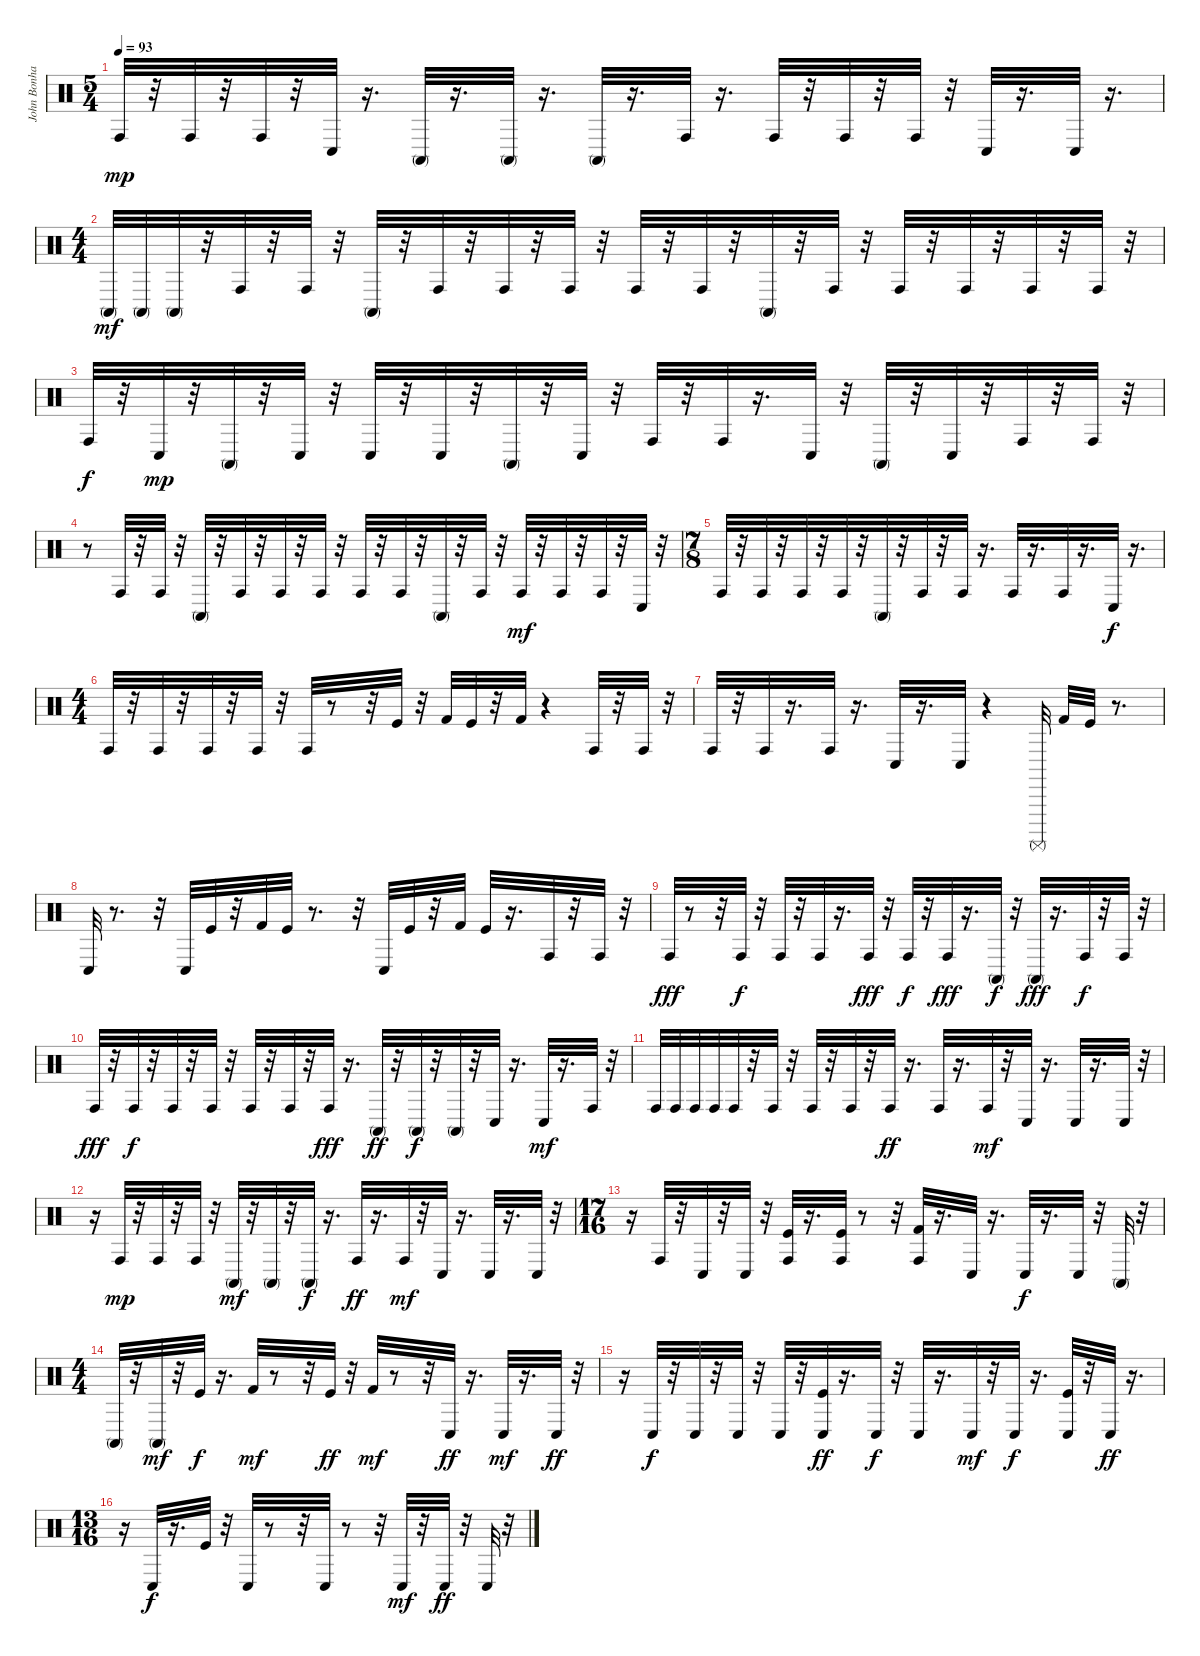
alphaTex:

\track ("John Bonham" "John Bonha") {instrument percussion}
\staff {score}
\articulation defaults
\ts (5 4)
\tempo 93
\clef neutral
\ks c "Conga high (hit)".32{dy mp}
r.32 "Conga high (hit)".32 r.32 "Conga high (hit)".32 r.32 "Conga low (hit)".32 r.16{d} "Conga high (mute)".32 r.16{d} "Conga high (mute)".32 r.16{d} "Conga high (mute)".32 r.16{d} "Conga high (hit)".32 r.16{d} "Conga high (hit)".32 r.32 "Conga high (hit)".32 r.32 "Conga high (hit)".32 r.32 "Conga low (hit)".32 r.16{d} "Conga low (hit)".32 r.16{d} |
\ts (4 4)
"Conga high (mute)".32{dy mf} "Conga high (mute)".32 "Conga high (mute)".32 r.32 "Conga high (hit)".32 r.32 "Conga high (hit)".32 r.32 "Conga high (mute)".32 r.32 "Conga high (hit)".32 r.32 "Conga high (hit)".32 r.32 "Conga high (hit)".32 r.32 "Conga high (hit)".32 r.32 "Conga high (hit)".32 r.32 "Conga high (mute)".32 r.32 "Conga high (hit)".32 r.32 "Conga high (hit)".32 r.32 "Conga high (hit)".32 r.32 "Conga high (hit)".32 r.32 "Conga high (hit)".32 r.32 |
"Conga high (hit)".32{dy f} r.32 "Conga low (hit)".32{dy mp} r.32 "Conga high (mute)".32 r.32 "Conga low (hit)".32 r.32 "Conga low (hit)".32 r.32 "Conga low (hit)".32 r.32 "Conga high (mute)".32 r.32 "Conga low (hit)".32 r.32 "Conga high (hit)".32 r.32 "Conga high (hit)".32 r.16{d} "Conga low (hit)".32 r.32 "Conga high (mute)".32 r.32 "Conga low (hit)".32 r.32 "Conga high (hit)".32 r.32 "Conga high (hit)".32 r.32 |
r.8 "Conga high (hit)".32 r.32 "Conga high (hit)".32 r.32 "Conga high (mute)".32 r.32 "Conga high (hit)".32 r.32 "Conga high (hit)".32 r.32 "Conga high (hit)".32 r.32 "Conga high (hit)".32 r.32 "Conga high (hit)".32 r.32 "Conga high (mute)".32 r.32 "Conga high (hit)".32 r.32 "Conga high (hit)".32{dy mf} r.32 "Conga high (hit)".32 r.32 "Conga high (hit)".32 r.32 "Conga low (hit)".32 r.32 |
\ts (7 8)
"Conga high (hit)".32 r.32 "Conga high (hit)".32 r.32 "Conga high (hit)".32 r.32 "Conga high (hit)".32 r.32 "Conga high (mute)".32 r.32 "Conga high (hit)".32 r.32 "Conga high (hit)".32 r.16{d} "Conga high (hit)".32 r.16{d} "Conga high (hit)".32 r.16{d} "Conga low (hit)".32{dy f} r.16{d} |
\ts (4 4)
"Conga high (hit)".32 r.32 "Conga high (hit)".32 r.32 "Conga high (hit)".32 r.32 "Conga high (hit)".32 r.32 "Conga high (hit)".32 r.8 r.32 "Kick (hit)".32 r.32 "Kick (hit) 2".32 "Kick (hit)".32 r.32 "Kick (hit) 2".32 r.4 "Conga high (hit)".32 r.32 "Conga high (hit)".32 r.32 |
"Conga high (hit)".32 r.32 "Conga high (hit)".32 r.16{d} "Conga high (hit)".32 r.16{d} "Conga low (hit)".32 r.16{d} "Conga low (hit)".32 r.4 "Surdo (mute)".32 "Kick (hit) 2".32 "Kick (hit)".32 r.8{d} |
"Conga low (hit)".32 r.8{d} r.32 "Conga low (hit)".32 "Kick (hit)".32 r.32 "Kick (hit) 2".32 "Kick (hit)".32 r.8{d} r.32 "Conga low (hit)".32 "Kick (hit)".32 r.32 "Kick (hit) 2".32 "Kick (hit)".32 r.16{d} "Conga high (hit)".32 r.32 "Conga high (hit)".32 r.32 |
"Conga high (hit)".32{dy fff} r.8 r.32 "Conga high (hit)".32{dy f} r.32 "Conga high (hit)".32 r.32 "Conga high (hit)".32 r.16{d} "Conga high (hit)".32{dy fff} r.32 "Conga high (hit)".32{dy f} r.32 "Conga high (hit)".32{dy fff} r.16{d} "Conga high (mute)".32{dy f} r.32 "Conga high (mute)".32{dy fff} r.16{d} "Conga high (hit)".32{dy f} r.32 "Conga high (hit)".32 r.32 |
"Conga high (hit)".32{dy fff} r.32 "Conga high (hit)".32{dy f} r.32 "Conga high (hit)".32 r.32 "Conga high (hit)".32 r.32 "Conga high (hit)".32 r.32 "Conga high (hit)".32 r.32 "Conga high (hit)".32{dy fff} r.16{d} "Conga high (mute)".32{dy ff} r.32 "Conga high (mute)".32{dy f} r.32 "Conga high (mute)".32 r.32 "Conga low (hit)".32 r.16{d} "Conga low (hit)".32{dy mf} r.16{d} "Conga high (hit)".32 r.32 |
"Conga high (hit)".32 "Conga high (hit)".32 "Conga high (hit)".32 "Conga high (hit)".32 "Conga high (hit)".32 r.32 "Conga high (hit)".32 r.32 "Conga high (hit)".32 r.32 "Conga high (hit)".32 r.32 "Conga high (hit)".32{dy ff} r.16{d} "Conga high (hit)".32 r.16{d} "Conga high (hit)".32{dy mf} r.32 "Conga low (hit)".32 r.16{d} "Conga low (hit)".32 r.16{d} "Conga low (hit)".32 r.32 |
r.16 "Conga high (hit)".32{dy mp} r.32 "Conga high (hit)".32 r.32 "Conga high (hit)".32 r.32 "Conga high (mute)".32{dy mf} r.32 "Conga high (mute)".32 r.32 "Conga high (mute)".32{dy f} r.16{d} "Conga high (hit)".32{dy ff} r.16{d} "Conga high (hit)".32{dy mf} r.32 "Conga low (hit)".32 r.16{d} "Conga low (hit)".32 r.16{d} "Conga low (hit)".32 r.32 |
\ts (17 16)
r.16 "Conga high (hit)".32 r.32 "Conga low (hit)".32 r.32 "Conga low (hit)".32 r.32 ("Kick (hit)" "Conga high (hit)").32 r.16{d} ("Kick (hit)" "Conga high (hit)").32 r.8 r.32 ("Conga high (hit)" "Kick (hit) 2").32 r.16{d} "Conga low (hit)".32 r.16{d} "Conga low (hit)".32{dy f} r.16{d} "Conga low (hit)".32 r.32 "Conga high (mute)".32 r.32 |
\ts (4 4)
"Conga high (mute)".32 r.32 "Conga high (mute)".32{dy mf} r.32 "Kick (hit)".32{dy f} r.16{d} "Kick (hit) 2".32{dy mf} r.8 r.32 "Kick (hit)".32{dy ff} r.32 "Kick (hit) 2".32{dy mf} r.8 r.32 "Conga low (hit)".32{dy ff} r.16{d} "Conga low (hit)".32{dy mf} r.16{d} "Conga low (hit)".32{dy ff} r.32 |
r.16 "Conga low (hit)".32{dy f} r.32 "Conga low (hit)".32 r.32 "Conga low (hit)".32 r.32 "Conga low (hit)".32 r.32 ("Kick (hit)" "Conga low (hit)").32{dy ff} r.16{d} "Conga low (hit)".32{dy f} r.32 "Conga low (hit)".32 r.16{d} "Conga low (hit)".32{dy mf} r.32 "Conga low (hit)".32{dy f} r.16{d} ("Kick (hit)" "Conga low (hit)").32 r.32 "Conga low (hit)".32{dy ff} r.16{d} |
\ts (13 16)
r.16 "Conga low (hit)".32{dy f} r.16{d} "Kick (hit)".32 r.32 "Conga low (hit)".32 r.8 r.32 "Conga low (hit)".32 r.8 r.32 "Conga low (hit)".32{dy mf} r.32 "Conga low (hit)".32{dy ff} r.32 "Conga low (hit)".32 r.32
